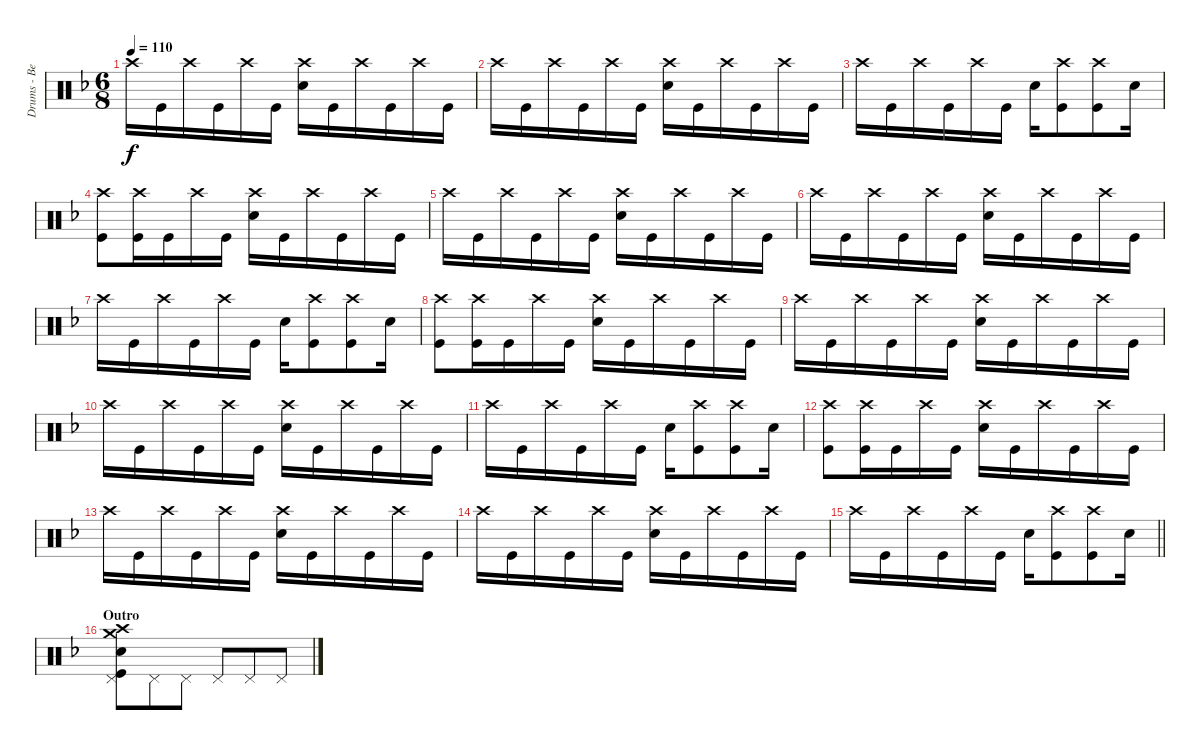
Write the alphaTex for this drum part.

\track ("Drums - Ben Johnston" "Drums - Be") {instrument percussion}
\staff {score}
\articulation defaults
\ts (6 8)
\tempo 110
\clef neutral
\ks dminor "Crash high (hit)".16{dy f} "Kick (hit)".16 "Crash high (hit)".16 "Kick (hit)".16 "Crash high (hit)".16 "Kick (hit)".16
("Crash high (hit)" "Snare (hit) 2").16 "Kick (hit)".16 "Crash high (hit)".16 "Kick (hit)".16 "Crash high (hit)".16 "Kick (hit)".16 |
"Crash high (hit)".16 "Kick (hit)".16 "Crash high (hit)".16 "Kick (hit)".16 "Crash high (hit)".16 "Kick (hit)".16 ("Crash high (hit)" "Snare (hit) 2").16 "Kick (hit)".16 "Crash high (hit)".16 "Kick (hit)".16 "Crash high (hit)".16 "Kick (hit)".16 |
"Crash high (hit)".16 "Kick (hit)".16 "Crash high (hit)".16 "Kick (hit)".16 "Crash high (hit)".16 "Kick (hit)".16 "Snare (hit) 2".16 ("Crash high (hit)" "Kick (hit)").8 ("Crash high (hit)" "Kick (hit)").8 "Snare (hit) 2".16 |
("Crash high (hit)" "Kick (hit)").8 ("Crash high (hit)" "Kick (hit)").16 "Kick (hit)".16 "Crash high (hit)".16 "Kick (hit)".16 ("Crash high (hit)" "Snare (hit) 2").16 "Kick (hit)".16 "Crash high (hit)".16 "Kick (hit)".16 "Crash high (hit)".16 "Kick (hit)".16 |
"Crash high (hit)".16 "Kick (hit)".16 "Crash high (hit)".16 "Kick (hit)".16 "Crash high (hit)".16 "Kick (hit)".16 ("Crash high (hit)" "Snare (hit) 2").16 "Kick (hit)".16 "Crash high (hit)".16 "Kick (hit)".16 "Crash high (hit)".16 "Kick (hit)".16 |
"Crash high (hit)".16 "Kick (hit)".16 "Crash high (hit)".16 "Kick (hit)".16 "Crash high (hit)".16 "Kick (hit)".16 ("Crash high (hit)" "Snare (hit) 2").16 "Kick (hit)".16 "Crash high (hit)".16 "Kick (hit)".16 "Crash high (hit)".16 "Kick (hit)".16 |
"Crash high (hit)".16 "Kick (hit)".16 "Crash high (hit)".16 "Kick (hit)".16 "Crash high (hit)".16 "Kick (hit)".16 "Snare (hit) 2".16 ("Crash high (hit)" "Kick (hit)").8 ("Crash high (hit)" "Kick (hit)").8 "Snare (hit) 2".16 |
("Crash high (hit)" "Kick (hit)").8 ("Crash high (hit)" "Kick (hit)").16 "Kick (hit)".16 "Crash high (hit)".16 "Kick (hit)".16 ("Crash high (hit)" "Snare (hit) 2").16 "Kick (hit)".16 "Crash high (hit)".16 "Kick (hit)".16 "Crash high (hit)".16 "Kick (hit)".16 |
"Crash high (hit)".16 "Kick (hit)".16 "Crash high (hit)".16 "Kick (hit)".16 "Crash high (hit)".16 "Kick (hit)".16 ("Crash high (hit)" "Snare (hit) 2").16 "Kick (hit)".16 "Crash high (hit)".16 "Kick (hit)".16 "Crash high (hit)".16 "Kick (hit)".16 |
"Crash high (hit)".16 "Kick (hit)".16 "Crash high (hit)".16 "Kick (hit)".16 "Crash high (hit)".16 "Kick (hit)".16 ("Crash high (hit)" "Snare (hit) 2").16 "Kick (hit)".16 "Crash high (hit)".16 "Kick (hit)".16 "Crash high (hit)".16 "Kick (hit)".16 |
"Crash high (hit)".16 "Kick (hit)".16 "Crash high (hit)".16 "Kick (hit)".16 "Crash high (hit)".16 "Kick (hit)".16 "Snare (hit) 2".16 ("Crash high (hit)" "Kick (hit)").8 ("Crash high (hit)" "Kick (hit)").8 "Snare (hit) 2".16 |
("Crash high (hit)" "Kick (hit)").8 ("Crash high (hit)" "Kick (hit)").16 "Kick (hit)".16 "Crash high (hit)".16 "Kick (hit)".16 ("Crash high (hit)" "Snare (hit) 2").16 "Kick (hit)".16 "Crash high (hit)".16 "Kick (hit)".16 "Crash high (hit)".16 "Kick (hit)".16 |
"Crash high (hit)".16 "Kick (hit)".16 "Crash high (hit)".16 "Kick (hit)".16 "Crash high (hit)".16 "Kick (hit)".16 ("Crash high (hit)" "Snare (hit) 2").16 "Kick (hit)".16 "Crash high (hit)".16 "Kick (hit)".16 "Crash high (hit)".16 "Kick (hit)".16 |
"Crash high (hit)".16 "Kick (hit)".16 "Crash high (hit)".16 "Kick (hit)".16 "Crash high (hit)".16 "Kick (hit)".16 ("Crash high (hit)" "Snare (hit) 2").16 "Kick (hit)".16 "Crash high (hit)".16 "Kick (hit)".16 "Crash high (hit)".16 "Kick (hit)".16 |
\barLineRight lightlight "Crash high (hit)".16 "Kick (hit)".16 "Crash high (hit)".16 "Kick (hit)".16 "Crash high (hit)".16 "Kick (hit)".16 "Snare (hit) 2".16
("Crash high (hit)" "Kick (hit)").8 ("Crash high (hit)" "Kick (hit)").8 "Snare (hit) 2".16 |
\section ("" "Outro")
("Crash high (hit)" "Crash medium (hit)" "Pedal Hi-Hat (hit)" "Snare (hit) 2" "Kick (hit)").8 "Pedal Hi-Hat (hit)".8 "Pedal Hi-Hat (hit)".8 "Pedal Hi-Hat (hit)".8 "Pedal Hi-Hat (hit)".8 "Pedal Hi-Hat (hit)".8
